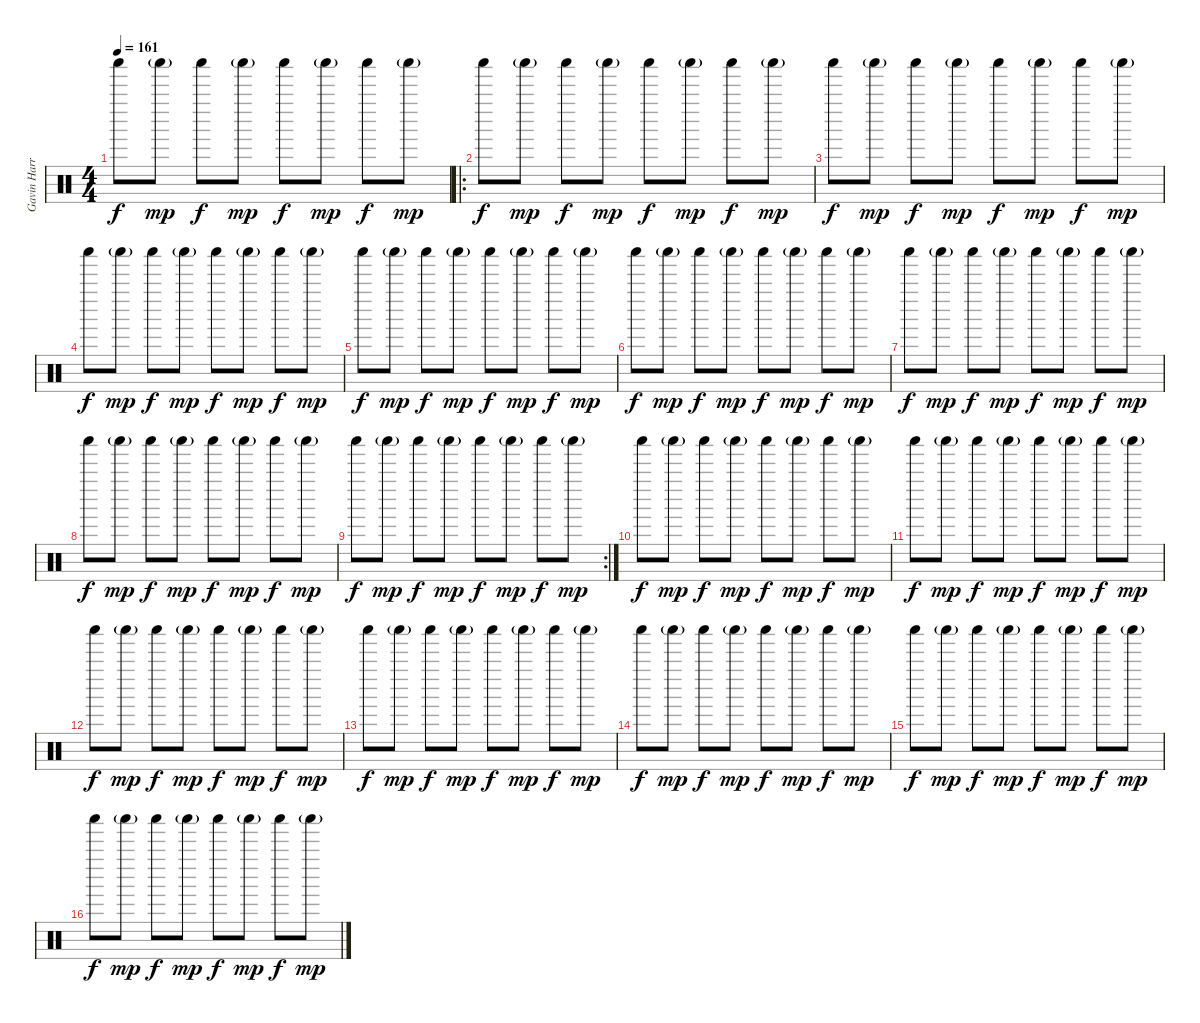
\track ("Gavin Harrison (Drums)" "Gavin Harr") {instrument percussion}
\staff {score}
\articulation defaults
\ts (4 4)
\tempo 161
\clef neutral
\ks c "Shaker (hit)".8{dy f} "Shaker (hit)"{g}.8{dy mp} "Shaker (hit)".8{dy f} "Shaker (hit)"{g}.8{dy mp} "Shaker (hit)".8{dy f} "Shaker (hit)"{g}.8{dy mp} "Shaker (hit)".8{dy f} "Shaker (hit)"{g}.8{dy mp}
|
\ro "Shaker (hit)".8{dy f} "Shaker (hit)"{g}.8{dy mp} "Shaker (hit)".8{dy f} "Shaker (hit)"{g}.8{dy mp} "Shaker (hit)".8{dy f} "Shaker (hit)"{g}.8{dy mp} "Shaker (hit)".8{dy f} "Shaker (hit)"{g}.8{dy mp}
|
"Shaker (hit)".8{dy f} "Shaker (hit)"{g}.8{dy mp} "Shaker (hit)".8{dy f} "Shaker (hit)"{g}.8{dy mp} "Shaker (hit)".8{dy f} "Shaker (hit)"{g}.8{dy mp} "Shaker (hit)".8{dy f} "Shaker (hit)"{g}.8{dy mp} |
"Shaker (hit)".8{dy f} "Shaker (hit)"{g}.8{dy mp} "Shaker (hit)".8{dy f} "Shaker (hit)"{g}.8{dy mp} "Shaker (hit)".8{dy f} "Shaker (hit)"{g}.8{dy mp} "Shaker (hit)".8{dy f} "Shaker (hit)"{g}.8{dy mp} |
"Shaker (hit)".8{dy f} "Shaker (hit)"{g}.8{dy mp} "Shaker (hit)".8{dy f} "Shaker (hit)"{g}.8{dy mp} "Shaker (hit)".8{dy f} "Shaker (hit)"{g}.8{dy mp} "Shaker (hit)".8{dy f} "Shaker (hit)"{g}.8{dy mp} |
"Shaker (hit)".8{dy f} "Shaker (hit)"{g}.8{dy mp} "Shaker (hit)".8{dy f} "Shaker (hit)"{g}.8{dy mp} "Shaker (hit)".8{dy f} "Shaker (hit)"{g}.8{dy mp} "Shaker (hit)".8{dy f} "Shaker (hit)"{g}.8{dy mp} |
"Shaker (hit)".8{dy f} "Shaker (hit)"{g}.8{dy mp} "Shaker (hit)".8{dy f} "Shaker (hit)"{g}.8{dy mp} "Shaker (hit)".8{dy f} "Shaker (hit)"{g}.8{dy mp} "Shaker (hit)".8{dy f} "Shaker (hit)"{g}.8{dy mp} |
"Shaker (hit)".8{dy f} "Shaker (hit)"{g}.8{dy mp} "Shaker (hit)".8{dy f} "Shaker (hit)"{g}.8{dy mp} "Shaker (hit)".8{dy f} "Shaker (hit)"{g}.8{dy mp} "Shaker (hit)".8{dy f} "Shaker (hit)"{g}.8{dy mp} |
\rc 2 "Shaker (hit)".8{dy f} "Shaker (hit)"{g}.8{dy mp} "Shaker (hit)".8{dy f} "Shaker (hit)"{g}.8{dy mp} "Shaker (hit)".8{dy f} "Shaker (hit)"{g}.8{dy mp} "Shaker (hit)".8{dy f} "Shaker (hit)"{g}.8{dy mp}
|
"Shaker (hit)".8{dy f} "Shaker (hit)"{g}.8{dy mp} "Shaker (hit)".8{dy f} "Shaker (hit)"{g}.8{dy mp} "Shaker (hit)".8{dy f} "Shaker (hit)"{g}.8{dy mp} "Shaker (hit)".8{dy f} "Shaker (hit)"{g}.8{dy mp} |
"Shaker (hit)".8{dy f} "Shaker (hit)"{g}.8{dy mp} "Shaker (hit)".8{dy f} "Shaker (hit)"{g}.8{dy mp} "Shaker (hit)".8{dy f} "Shaker (hit)"{g}.8{dy mp} "Shaker (hit)".8{dy f} "Shaker (hit)"{g}.8{dy mp} |
"Shaker (hit)".8{dy f} "Shaker (hit)"{g}.8{dy mp} "Shaker (hit)".8{dy f} "Shaker (hit)"{g}.8{dy mp} "Shaker (hit)".8{dy f} "Shaker (hit)"{g}.8{dy mp} "Shaker (hit)".8{dy f} "Shaker (hit)"{g}.8{dy mp} |
"Shaker (hit)".8{dy f} "Shaker (hit)"{g}.8{dy mp} "Shaker (hit)".8{dy f} "Shaker (hit)"{g}.8{dy mp} "Shaker (hit)".8{dy f} "Shaker (hit)"{g}.8{dy mp} "Shaker (hit)".8{dy f} "Shaker (hit)"{g}.8{dy mp} |
"Shaker (hit)".8{dy f} "Shaker (hit)"{g}.8{dy mp} "Shaker (hit)".8{dy f} "Shaker (hit)"{g}.8{dy mp} "Shaker (hit)".8{dy f} "Shaker (hit)"{g}.8{dy mp} "Shaker (hit)".8{dy f} "Shaker (hit)"{g}.8{dy mp} |
"Shaker (hit)".8{dy f} "Shaker (hit)"{g}.8{dy mp} "Shaker (hit)".8{dy f} "Shaker (hit)"{g}.8{dy mp} "Shaker (hit)".8{dy f} "Shaker (hit)"{g}.8{dy mp} "Shaker (hit)".8{dy f} "Shaker (hit)"{g}.8{dy mp} |
"Shaker (hit)".8{dy f} "Shaker (hit)"{g}.8{dy mp} "Shaker (hit)".8{dy f} "Shaker (hit)"{g}.8{dy mp} "Shaker (hit)".8{dy f} "Shaker (hit)"{g}.8{dy mp} "Shaker (hit)".8{dy f} "Shaker (hit)"{g}.8{dy mp}
